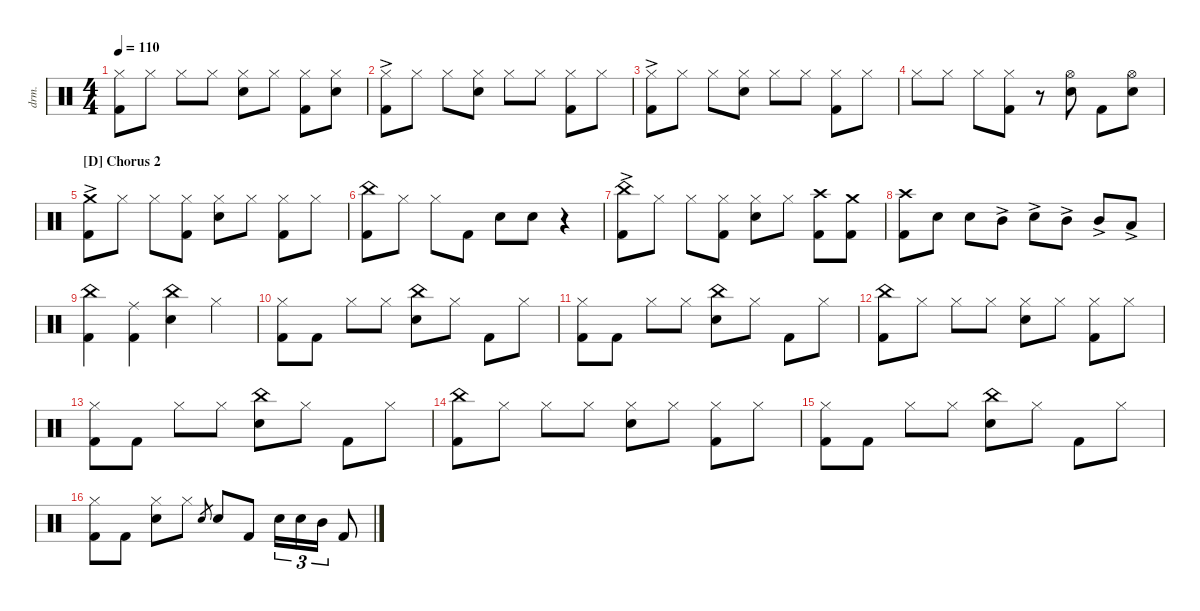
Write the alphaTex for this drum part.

\defaultSystemsLayout 4
\hideDynamics
\bracketExtendMode nobrackets
\otherSystemsTrackNameOrientation horizontal
\track ("Drums" "drm.") {instrument percussion}
\staff {score}
\articulation defaults
\ts (4 4)
\tempo 110
\clef neutral
\ks aminor
("Kick (hit) 2" "Hi-Hat (closed)").8{dy f beam Down} "Hi-Hat (closed)".8{beam Down} "Hi-Hat (closed)".8{beam Down} "Hi-Hat (closed)".8{beam Down} ("Hi-Hat (closed)" "Snare (hit) 2").8{beam Down} "Hi-Hat (closed)".8{beam Down} ("Hi-Hat (closed)" "Kick (hit) 2").8{beam Down} ("Hi-Hat (closed)" "Snare (hit) 2").8{beam Down} |
("Kick (hit) 2"{ac} "Hi-Hat (closed)").8{beam Down} "Hi-Hat (closed)".8{beam Down} "Hi-Hat (closed)".8{beam Down} ("Hi-Hat (closed)" "Snare (hit) 2").8{beam Down} "Hi-Hat (closed)".8{beam Down} "Hi-Hat (closed)".8{beam Down} ("Hi-Hat (closed)" "Kick (hit) 2").8{beam Down} "Hi-Hat (closed)".8{beam Down} |
("Kick (hit) 2"{ac} "Hi-Hat (closed)").8{beam Down} "Hi-Hat (closed)".8{beam Down} "Hi-Hat (closed)".8{beam Down} ("Hi-Hat (closed)" "Snare (hit) 2").8{beam Down} "Hi-Hat (closed)".8{beam Down} "Hi-Hat (closed)".8{beam Down} ("Hi-Hat (closed)" "Kick (hit) 2").8{beam Down} "Hi-Hat (closed)".8{beam Down} |
"Hi-Hat (closed)".8{beam Down} "Hi-Hat (closed)".8{beam Down} "Hi-Hat (closed)".8{beam Down} ("Kick (hit) 2" "Hi-Hat (closed)").8{beam Down} r.8{beam Down} ("Snare (hit) 2" "Hi-Hat (open)").8{beam Down} "Kick (hit) 2".8{beam Down} ("Snare (hit) 2" "Hi-Hat (open)").8{beam Down} |
\section ("D" "Chorus 2")
("Kick (hit) 2"{ac} "Crash medium (hit)"{ac}).8{beam Down} "Hi-Hat (closed)".8{beam Down} "Hi-Hat (closed)".8{beam Down} ("Hi-Hat (closed)" "Kick (hit) 2").8{beam Down} ("Snare (hit) 2" "Hi-Hat (closed)").8{beam Down} "Hi-Hat (closed)".8{beam Down} ("Hi-Hat (closed)" "Kick (hit) 2").8{beam Down} "Hi-Hat (closed)".8{beam Down} |
("Kick (hit) 2" "China (hit)").8{beam Down} "Hi-Hat (closed)".8{beam Down} "Hi-Hat (closed)".8{beam Down} "Kick (hit) 2".8{beam Down} "Snare (hit) 2".8{beam Down} "Snare (hit) 2".8{beam Down} r.4{beam Down} |
("Kick (hit) 2"{ac} "China (hit)"{ac}).8{beam Down} "Hi-Hat (closed)".8{beam Down} "Hi-Hat (closed)".8{beam Down} ("Hi-Hat (closed)" "Kick (hit) 2").8{beam Down} ("Snare (hit) 2" "Hi-Hat (closed)").8{beam Down} "Hi-Hat (closed)".8{beam Down} ("Kick (hit) 2" "Crash high (hit)").8{beam Down} ("Kick (hit) 2" "Crash medium (hit)").8{beam Down} |
("Kick (hit) 2" "Crash high (hit)").8{beam Down} "Snare (hit) 2".8{beam Down} "Snare (hit) 2".8{beam Down} "Mid Tom (hit)"{ac}.8{beam Down} "Snare (hit) 2"{ac}.8{beam Down} "Mid Tom (hit)"{ac}.8{beam Down} "Mid Tom (hit)"{ac}.8{beam Up} "Low Tom (hit)"{ac}.8{beam Up} |
("Kick (hit) 2" "China (hit)").4{beam Down} ("Ride (middle)" "Kick (hit) 2").4{beam Down} ("Snare (hit) 2" "China (hit)").4{beam Down} "Hi-Hat (closed)".4{beam Down} |
("Kick (hit) 2" "Hi-Hat (closed)").8{beam Down} "Kick (hit) 2".8{beam Down} "Hi-Hat (closed)".8{beam Down} "Hi-Hat (closed)".8{beam Down} ("Snare (hit) 2" "China (hit)").8{beam Down} "Hi-Hat (closed)".8{beam Down} "Kick (hit) 2".8{beam Down} "Hi-Hat (closed)".8{beam Down} |
("Kick (hit) 2" "Hi-Hat (closed)").8{beam Down} "Kick (hit) 2".8{beam Down} "Hi-Hat (closed)".8{beam Down} "Hi-Hat (closed)".8{beam Down} ("Snare (hit) 2" "China (hit)").8{beam Down} "Hi-Hat (closed)".8{beam Down} "Kick (hit) 2".8{beam Down} "Hi-Hat (closed)".8{beam Down} |
("Kick (hit) 2" "China (hit)").8{beam Down} "Hi-Hat (closed)".8{beam Down} "Hi-Hat (closed)".8{beam Down} "Hi-Hat (closed)".8{beam Down} ("Hi-Hat (closed)" "Snare (hit) 2").8{beam Down} "Hi-Hat (closed)".8{beam Down} ("Hi-Hat (closed)" "Kick (hit) 2").8{beam Down} "Hi-Hat (closed)".8{beam Down} |
("Kick (hit) 2" "Hi-Hat (closed)").8{beam Down} "Kick (hit) 2".8{beam Down} "Hi-Hat (closed)".8{beam Down} "Hi-Hat (closed)".8{beam Down} ("Snare (hit) 2" "China (hit)").8{beam Down} "Hi-Hat (closed)".8{beam Down} "Kick (hit) 2".8{beam Down} "Hi-Hat (closed)".8{beam Down} |
("Kick (hit) 2" "China (hit)").8{beam Down} "Hi-Hat (closed)".8{beam Down} "Hi-Hat (closed)".8{beam Down} "Hi-Hat (closed)".8{beam Down} ("Hi-Hat (closed)" "Snare (hit) 2").8{beam Down} "Hi-Hat (closed)".8{beam Down} ("Hi-Hat (closed)" "Kick (hit) 2").8{beam Down} "Hi-Hat (closed)".8{beam Down} |
("Kick (hit) 2" "Hi-Hat (closed)").8{beam Down} "Kick (hit) 2".8{beam Down} "Hi-Hat (closed)".8{beam Down} "Hi-Hat (closed)".8{beam Down} ("Snare (hit) 2" "China (hit)").8{beam Down} "Hi-Hat (closed)".8{beam Down} "Kick (hit) 2".8{beam Down} "Hi-Hat (closed)".8{beam Down} |
("Kick (hit) 2" "Hi-Hat (closed)").8{beam Down} "Kick (hit) 2".8{beam Down} ("Hi-Hat (closed)" "Snare (hit) 2").8{beam Down} "Hi-Hat (closed)".8{beam Down} "Snare (hit) 2".8{gr beam Up} "Snare (hit) 2".8{beam Up} "Kick (hit) 2".8{beam Up} "Snare (hit) 2".16{tu (3 2) beam Down} "Snare (hit) 2".16{tu (3 2) beam Down} "Mid Tom (hit)".16{tu (3 2) beam Down} "Kick (hit) 2".8{beam Up}
